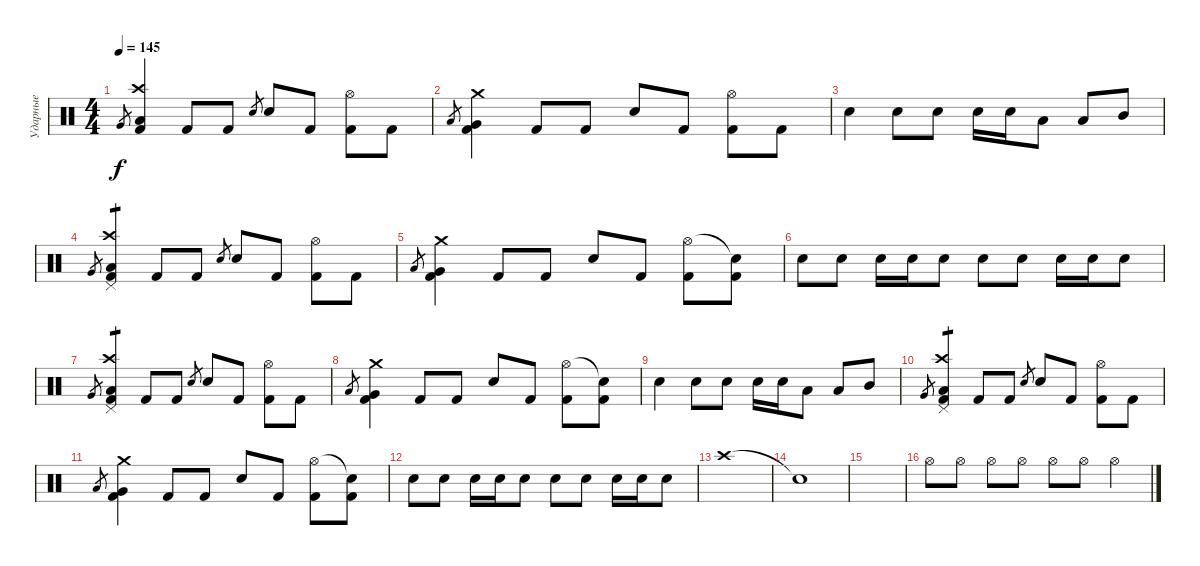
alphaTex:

\track ("Ударные" "Ударные") {instrument percussion}
\staff {score}
\articulation defaults
\ts (4 4)
\tempo 145
\clef neutral
\ks c "Very Low Tom (hit)".8{gr dy f}
("Kick (hit) 2" "Crash high (hit)" "Low Floor Tom (hit)").4 "Kick (hit) 2".8 "Kick (hit) 2".8 "Snare (hit) 2".8{gr} "Snare (hit) 2".8 "Kick (hit) 2".8 ("Kick (hit) 2" "Hi-Hat (open)").8 "Kick (hit) 2".8 |
"Low Tom (hit)".8{gr} ("Kick (hit) 2" "Crash medium (hit)" "Very Low Tom (hit)").4 "Kick (hit) 2".8 "Kick (hit) 2".8 "Snare (hit) 2".8 "Kick (hit) 2".8 ("Kick (hit) 2" "Hi-Hat (open)").8 "Kick (hit) 2".8 |
"Snare (hit) 2".4 "Snare (hit) 2".8 "Snare (hit) 2".8 "Snare (hit) 2".16 "Snare (hit) 2".16 "Low Floor Tom (hit)".8 "Low Tom (hit)".8 "Mid Tom (hit)".8 |
"Very Low Tom (hit)".8{gr} ("Kick (hit) 2" "Crash high (hit)" "Low Floor Tom (hit)" "Pedal Hi-Hat (hit)").4{tp 1} "Kick (hit) 2".8 "Kick (hit) 2".8 "Snare (hit) 2".8{gr} "Snare (hit) 2".8 "Kick (hit) 2".8 ("Kick (hit) 2" "Hi-Hat (open)").8 "Kick (hit) 2".8 |
"Low Tom (hit)".8{gr} ("Kick (hit) 2" "Crash medium (hit)" "Very Low Tom (hit)").4 "Kick (hit) 2".8 "Kick (hit) 2".8 "Snare (hit) 2".8 "Kick (hit) 2".8 ("Kick (hit) 2" "Hi-Hat (open)").8 ("Kick (hit) 2" "Snare (hit)"{t}).8 |
"Snare (hit) 2".8 "Snare (hit) 2".8 "Snare (hit) 2".16 "Snare (hit) 2".16 "Snare (hit) 2".8 "Snare (hit) 2".8 "Snare (hit) 2".8 "Snare (hit) 2".16 "Snare (hit) 2".16 "Snare (hit) 2".8 |
"Very Low Tom (hit)".8{gr} ("Kick (hit) 2" "Crash high (hit)" "Low Floor Tom (hit)" "Pedal Hi-Hat (hit)").4{tp 1} "Kick (hit) 2".8 "Kick (hit) 2".8 "Snare (hit) 2".8{gr} "Snare (hit) 2".8 "Kick (hit) 2".8 ("Kick (hit) 2" "Hi-Hat (open)").8 "Kick (hit) 2".8 |
"Low Tom (hit)".8{gr} ("Kick (hit) 2" "Crash medium (hit)" "Very Low Tom (hit)").4 "Kick (hit) 2".8 "Kick (hit) 2".8 "Snare (hit) 2".8 "Kick (hit) 2".8 ("Kick (hit) 2" "Hi-Hat (open)").8 ("Kick (hit) 2" "Snare (hit)"{t}).8 |
"Snare (hit) 2".4 "Snare (hit) 2".8 "Snare (hit) 2".8 "Snare (hit) 2".16 "Snare (hit) 2".16 "Low Floor Tom (hit)".8 "Low Tom (hit)".8 "Mid Tom (hit)".8 |
"Very Low Tom (hit)".8{gr} ("Kick (hit) 2" "Crash high (hit)" "Low Floor Tom (hit)" "Pedal Hi-Hat (hit)").4{tp 1} "Kick (hit) 2".8 "Kick (hit) 2".8 "Snare (hit) 2".8{gr} "Snare (hit) 2".8 "Kick (hit) 2".8 ("Kick (hit) 2" "Hi-Hat (open)").8 "Kick (hit) 2".8 |
"Low Tom (hit)".8{gr} ("Kick (hit) 2" "Crash medium (hit)" "Very Low Tom (hit)").4 "Kick (hit) 2".8 "Kick (hit) 2".8 "Snare (hit) 2".8 "Kick (hit) 2".8 ("Kick (hit) 2" "Hi-Hat (open)").8 ("Kick (hit) 2" "Snare (hit)"{t}).8 |
"Snare (hit) 2".8 "Snare (hit) 2".8 "Snare (hit) 2".16 "Snare (hit) 2".16 "Snare (hit) 2".8 "Snare (hit) 2".8 "Snare (hit) 2".8 "Snare (hit) 2".16 "Snare (hit) 2".16 "Snare (hit) 2".8 |
"Crash high (hit)".1 |
"Snare (hit)"{t}.1 |
|
"Hi-Hat (open)".8 "Hi-Hat (open)".8 "Hi-Hat (open)".8 "Hi-Hat (open)".8 "Hi-Hat (open)".8 "Hi-Hat (open)".8 "Hi-Hat (open)".4
